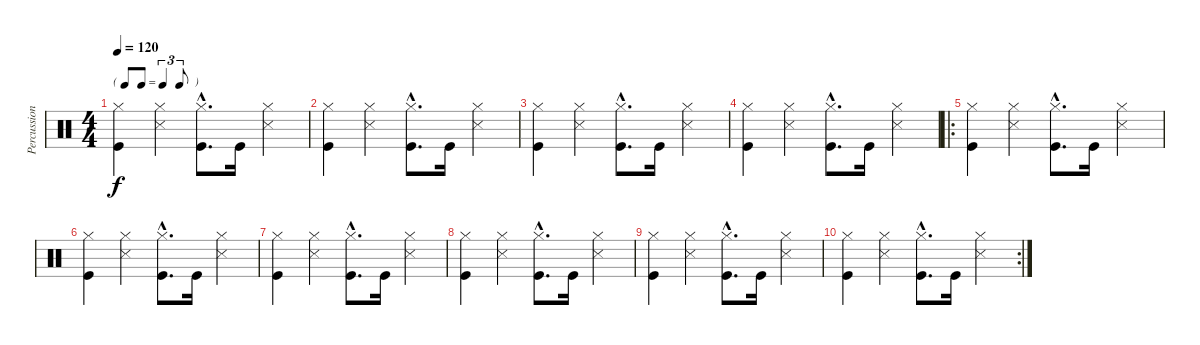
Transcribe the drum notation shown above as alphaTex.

\track ("Percussion" "Percussion") {instrument percussion}
\staff {score}
\articulation defaults
\ts (4 4)
\tf triplet8th
\tempo 120
\clef neutral
\ks c
("Hi-Hat (closed)" "Kick (hit)").4{dy f} ("Hi-Hat (closed)" "Snare (side stick) 3").4 ("Hi-Hat (closed)"{hac} "Kick (hit)"{hac}).8{d} "Kick (hit)".16 ("Hi-Hat (closed)" "Snare (side stick) 3").4 |
("Hi-Hat (closed)" "Kick (hit)").4 ("Hi-Hat (closed)" "Snare (side stick) 3").4 ("Hi-Hat (closed)"{hac} "Kick (hit)"{hac}).8{d} "Kick (hit)".16 ("Hi-Hat (closed)" "Snare (side stick) 3").4 |
("Hi-Hat (closed)" "Kick (hit)").4 ("Hi-Hat (closed)" "Snare (side stick) 3").4 ("Hi-Hat (closed)"{hac} "Kick (hit)"{hac}).8{d} "Kick (hit)".16 ("Hi-Hat (closed)" "Snare (side stick) 3").4 |
("Hi-Hat (closed)" "Kick (hit)").4 ("Hi-Hat (closed)" "Snare (side stick) 3").4 ("Hi-Hat (closed)"{hac} "Kick (hit)"{hac}).8{d} "Kick (hit)".16 ("Hi-Hat (closed)" "Snare (side stick) 3").4 |
\ro
("Hi-Hat (closed)" "Kick (hit)").4 ("Hi-Hat (closed)" "Snare (side stick) 3").4 ("Hi-Hat (closed)"{hac} "Kick (hit)"{hac}).8{d} "Kick (hit)".16 ("Hi-Hat (closed)" "Snare (side stick) 3").4 |
("Hi-Hat (closed)" "Kick (hit)").4 ("Hi-Hat (closed)" "Snare (side stick) 3").4 ("Hi-Hat (closed)"{hac} "Kick (hit)"{hac}).8{d} "Kick (hit)".16 ("Hi-Hat (closed)" "Snare (side stick) 3").4 |
("Hi-Hat (closed)" "Kick (hit)").4 ("Hi-Hat (closed)" "Snare (side stick) 3").4 ("Hi-Hat (closed)"{hac} "Kick (hit)"{hac}).8{d} "Kick (hit)".16 ("Hi-Hat (closed)" "Snare (side stick) 3").4 |
("Hi-Hat (closed)" "Kick (hit)").4 ("Hi-Hat (closed)" "Snare (side stick) 3").4 ("Hi-Hat (closed)"{hac} "Kick (hit)"{hac}).8{d} "Kick (hit)".16 ("Hi-Hat (closed)" "Snare (side stick) 3").4 |
("Hi-Hat (closed)" "Kick (hit)").4 ("Hi-Hat (closed)" "Snare (side stick) 3").4 ("Hi-Hat (closed)"{hac} "Kick (hit)"{hac}).8{d} "Kick (hit)".16 ("Hi-Hat (closed)" "Snare (side stick) 3").4 |
\rc 2
("Hi-Hat (closed)" "Kick (hit)").4 ("Hi-Hat (closed)" "Snare (side stick) 3").4 ("Hi-Hat (closed)"{hac} "Kick (hit)"{hac}).8{d} "Kick (hit)".16 ("Hi-Hat (closed)" "Snare (side stick) 3").4
